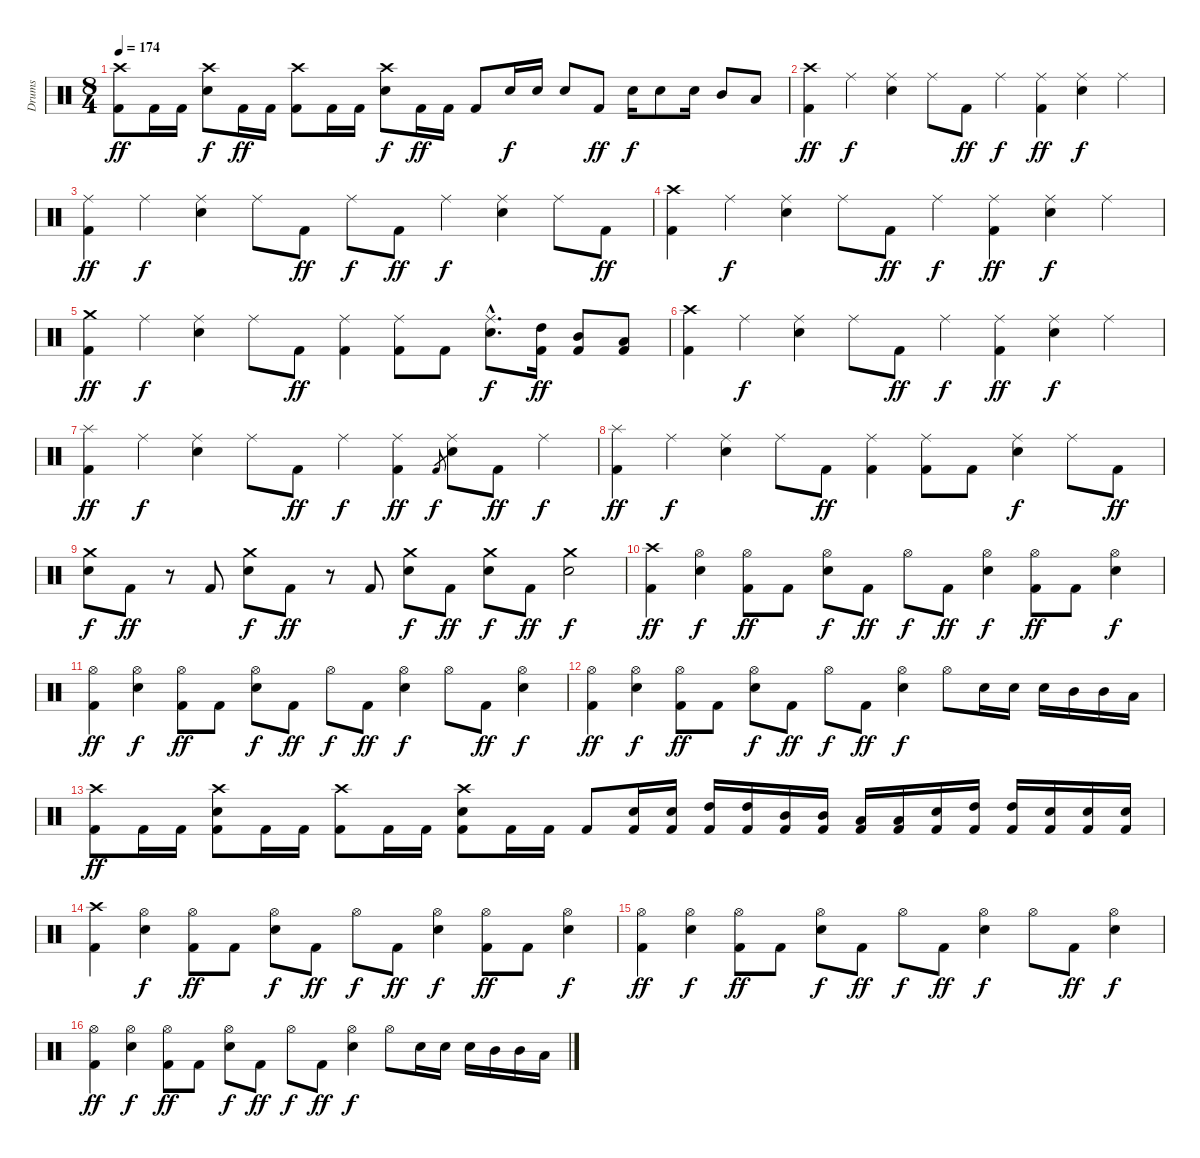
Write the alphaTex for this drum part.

\track ("Drums" "Drums") {instrument percussion}
\staff {score}
\articulation defaults
\ts (8 4)
\tempo 174
\clef neutral
\ks c
("Crash high (hit)" "Kick (hit) 2").8{dy ff} "Kick (hit) 2".16 "Kick (hit) 2".16 ("Crash high (hit)" "Snare (hit) 2").8{dy f} "Kick (hit) 2".16{dy ff} "Kick (hit) 2".16 ("Crash high (hit)" "Kick (hit) 2").8 "Kick (hit) 2".16 "Kick (hit) 2".16 ("Crash high (hit)" "Snare (hit) 2").8{dy f} "Kick (hit) 2".16{dy ff} "Kick (hit) 2".16 "Kick (hit) 2".8 "Snare (hit) 2".16{dy f} "Snare (hit) 2".16 "Snare (hit) 2".8 "Kick (hit) 2".8{dy ff} "Snare (hit) 2".16{dy f} "Snare (hit) 2".8 "Snare (hit) 2".16 "Mid Tom (hit)".8 "Low Tom (hit)".8 |
("Crash high (hit)" "Kick (hit) 2").4{dy ff} "Ride (middle)".4{dy f} ("Ride (middle)" "Snare (hit) 2").4 "Ride (middle)".8 "Kick (hit) 2".8{dy ff} "Ride (middle)".4{dy f} ("Ride (middle)" "Kick (hit) 2").4{dy ff} ("Ride (middle)" "Snare (hit) 2").4{dy f} "Ride (middle)".4 |
("Ride (middle)" "Kick (hit) 2").4{dy ff} "Ride (middle)".4{dy f} ("Ride (middle)" "Snare (hit) 2").4 "Ride (middle)".8 "Kick (hit) 2".8{dy ff} "Ride (middle)".8{dy f} "Kick (hit) 2".8{dy ff} "Ride (middle)".4{dy f} ("Ride (middle)" "Snare (hit) 2").4 "Ride (middle)".8 "Kick (hit) 2".8{dy ff} |
("Crash high (hit)" "Kick (hit) 2").4 "Ride (middle)".4{dy f} ("Ride (middle)" "Snare (hit) 2").4 "Ride (middle)".8 "Kick (hit) 2".8{dy ff} "Ride (middle)".4{dy f} ("Ride (middle)" "Kick (hit) 2").4{dy ff} ("Ride (middle)" "Snare (hit) 2").4{dy f} "Ride (middle)".4 |
("Crash medium (hit)" "Kick (hit) 2").4{dy ff} "Ride (middle)".4{dy f} ("Ride (middle)" "Snare (hit) 2").4 "Ride (middle)".8 "Kick (hit) 2".8{dy ff} ("Ride (middle)" "Kick (hit) 2").4 ("Ride (middle)" "Kick (hit) 2").8 "Kick (hit) 2".8 ("Ride (middle)"{hac} "Snare (hit) 2"{hac}).8{d dy f} ("High Tom (hit)" "Kick (hit) 2").16{dy ff} ("Mid Tom (hit)" "Kick (hit) 2").8 ("Low Tom (hit)" "Kick (hit) 2").8 |
("Crash high (hit)" "Kick (hit) 2").4 "Ride (middle)".4{dy f} ("Ride (middle)" "Snare (hit) 2").4 "Ride (middle)".8 "Kick (hit) 2".8{dy ff} "Ride (middle)".4{dy f} ("Ride (middle)" "Kick (hit) 2").4{dy ff} ("Ride (middle)" "Snare (hit) 2").4{dy f} "Ride (middle)".4 |
("Splash (hit)" "Kick (hit) 2").4{dy ff} "Ride (middle)".4{dy f} ("Ride (middle)" "Snare (hit) 2").4 "Ride (middle)".8 "Kick (hit) 2".8{dy ff} "Ride (middle)".4{dy f} ("Ride (middle)" "Kick (hit) 2").4{dy ff} "Kick (hit) 2".8{gr dy f} ("Ride (middle)" "Snare (hit) 2").8 "Kick (hit) 2".8{dy ff} "Ride (middle)".4{dy f} |
("Splash (hit)" "Kick (hit) 2").4{dy ff} "Ride (middle)".4{dy f} ("Ride (middle)" "Snare (hit) 2").4 "Ride (middle)".8 "Kick (hit) 2".8{dy ff} ("Ride (middle)" "Kick (hit) 2").4 ("Ride (middle)" "Kick (hit) 2").8 "Kick (hit) 2".8 ("Ride (middle)" "Snare (hit) 2").4{dy f} "Ride (middle)".8 "Kick (hit) 2".8{dy ff} |
("Crash medium (hit)" "Snare (hit) 2").8{dy f} "Kick (hit) 2".8{dy ff} r.8 "Kick (hit) 2".8 ("Crash medium (hit)" "Snare (hit) 2").8{dy f} "Kick (hit) 2".8{dy ff} r.8 "Kick (hit) 2".8 ("Crash medium (hit)" "Snare (hit) 2").8{dy f} "Kick (hit) 2".8{dy ff} ("Crash medium (hit)" "Snare (hit) 2").8{dy f} "Kick (hit) 2".8{dy ff} ("Crash medium (hit)" "Snare (hit) 2").2{dy f} |
("Crash high (hit)" "Kick (hit) 2").4{dy ff} ("Hi-Hat (open)" "Snare (hit) 2").4{dy f} ("Hi-Hat (open)" "Kick (hit) 2").8{dy ff} "Kick (hit) 2".8 ("Hi-Hat (open)" "Snare (hit) 2").8{dy f} "Kick (hit) 2".8{dy ff} "Hi-Hat (open)".8{dy f} "Kick (hit) 2".8{dy ff} ("Hi-Hat (open)" "Snare (hit) 2").4{dy f} ("Hi-Hat (open)" "Kick (hit) 2").8{dy ff} "Kick (hit) 2".8 ("Hi-Hat (open)" "Snare (hit) 2").4{dy f} |
("Hi-Hat (open)" "Kick (hit) 2").4{dy ff} ("Hi-Hat (open)" "Snare (hit) 2").4{dy f} ("Hi-Hat (open)" "Kick (hit) 2").8{dy ff} "Kick (hit) 2".8 ("Hi-Hat (open)" "Snare (hit) 2").8{dy f} "Kick (hit) 2".8{dy ff} "Hi-Hat (open)".8{dy f} "Kick (hit) 2".8{dy ff} ("Hi-Hat (open)" "Snare (hit) 2").4{dy f} "Hi-Hat (open)".8 "Kick (hit) 2".8{dy ff} ("Hi-Hat (open)" "Snare (hit) 2").4{dy f} |
("Hi-Hat (open)" "Kick (hit) 2").4{dy ff} ("Hi-Hat (open)" "Snare (hit) 2").4{dy f} ("Hi-Hat (open)" "Kick (hit) 2").8{dy ff} "Kick (hit) 2".8 ("Hi-Hat (open)" "Snare (hit) 2").8{dy f} "Kick (hit) 2".8{dy ff} "Hi-Hat (open)".8{dy f} "Kick (hit) 2".8{dy ff} ("Hi-Hat (open)" "Snare (hit) 2").4{dy f} "Hi-Hat (open)".8 "Snare (hit) 2".16 "Snare (hit) 2".16 "Snare (hit) 2".16 "Mid Tom (hit)".16 "Mid Tom (hit)".16 "Low Tom (hit)".16 |
("Crash high (hit)" "Kick (hit) 2").8{dy ff} "Kick (hit) 2".16 "Kick (hit) 2".16 ("Crash high (hit)" "Snare (hit) 2" "Kick (hit) 2").8 "Kick (hit) 2".16 "Kick (hit) 2".16 ("Crash high (hit)" "Kick (hit) 2").8 "Kick (hit) 2".16 "Kick (hit) 2".16 ("Crash high (hit)" "Snare (hit) 2" "Kick (hit) 2").8 "Kick (hit) 2".16 "Kick (hit) 2".16 "Kick (hit) 2".8 ("Snare (hit) 2" "Kick (hit) 2").16 ("Snare (hit) 2" "Kick (hit) 2").16 ("High Tom (hit)" "Kick (hit) 2").16 ("High Tom (hit)" "Kick (hit) 2").16 ("Mid Tom (hit)" "Kick (hit) 2").16 ("Mid Tom (hit)" "Kick (hit) 2").16 ("Low Tom (hit)" "Kick (hit) 2").16 ("Low Tom (hit)" "Kick (hit) 2").16 ("Snare (hit) 2" "Kick (hit) 2").16 ("High Tom (hit)" "Kick (hit) 2").16 ("High Tom (hit)" "Kick (hit) 2").16 ("Snare (hit) 2" "Kick (hit) 2").16 ("Snare (hit) 2" "Kick (hit) 2").16 ("Snare (hit) 2" "Kick (hit) 2").16 |
("Crash high (hit)" "Kick (hit) 2").4 ("Hi-Hat (open)" "Snare (hit) 2").4{dy f} ("Hi-Hat (open)" "Kick (hit) 2").8{dy ff} "Kick (hit) 2".8 ("Hi-Hat (open)" "Snare (hit) 2").8{dy f} "Kick (hit) 2".8{dy ff} "Hi-Hat (open)".8{dy f} "Kick (hit) 2".8{dy ff} ("Hi-Hat (open)" "Snare (hit) 2").4{dy f} ("Hi-Hat (open)" "Kick (hit) 2").8{dy ff} "Kick (hit) 2".8 ("Hi-Hat (open)" "Snare (hit) 2").4{dy f} |
("Hi-Hat (open)" "Kick (hit) 2").4{dy ff} ("Hi-Hat (open)" "Snare (hit) 2").4{dy f} ("Hi-Hat (open)" "Kick (hit) 2").8{dy ff} "Kick (hit) 2".8 ("Hi-Hat (open)" "Snare (hit) 2").8{dy f} "Kick (hit) 2".8{dy ff} "Hi-Hat (open)".8{dy f} "Kick (hit) 2".8{dy ff} ("Hi-Hat (open)" "Snare (hit) 2").4{dy f} "Hi-Hat (open)".8 "Kick (hit) 2".8{dy ff} ("Hi-Hat (open)" "Snare (hit) 2").4{dy f} |
("Hi-Hat (open)" "Kick (hit) 2").4{dy ff} ("Hi-Hat (open)" "Snare (hit) 2").4{dy f} ("Hi-Hat (open)" "Kick (hit) 2").8{dy ff} "Kick (hit) 2".8 ("Hi-Hat (open)" "Snare (hit) 2").8{dy f} "Kick (hit) 2".8{dy ff} "Hi-Hat (open)".8{dy f} "Kick (hit) 2".8{dy ff} ("Hi-Hat (open)" "Snare (hit) 2").4{dy f} "Hi-Hat (open)".8 "Snare (hit) 2".16 "Snare (hit) 2".16 "Snare (hit) 2".16 "Mid Tom (hit)".16 "Mid Tom (hit)".16 "Low Tom (hit)".16
